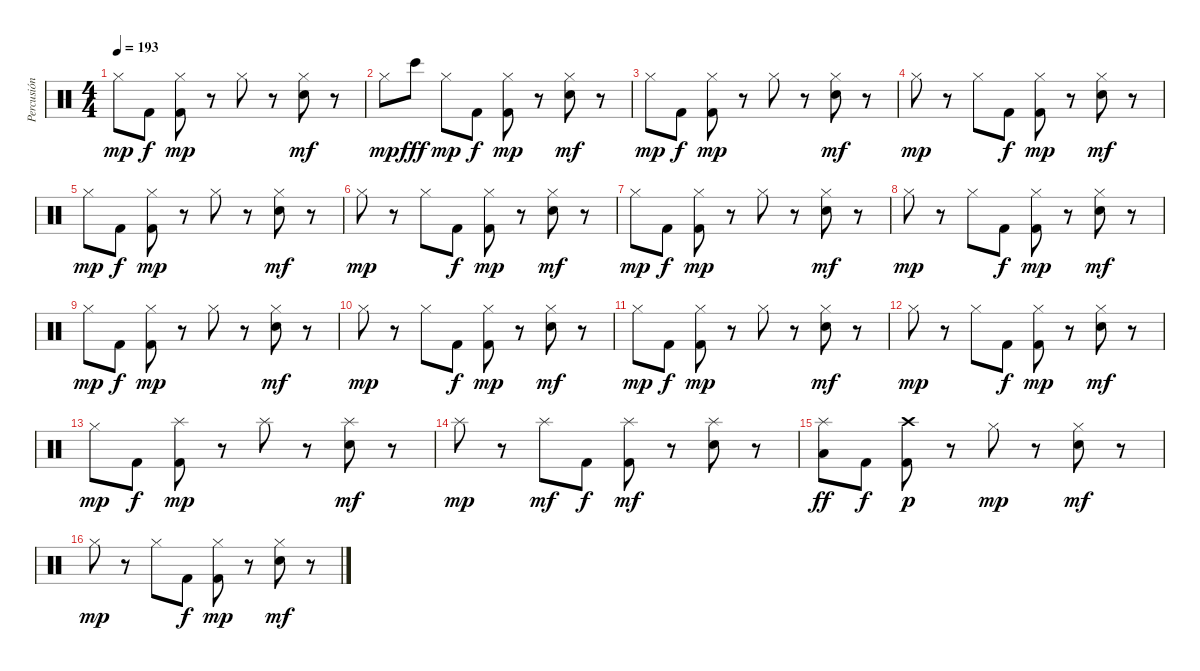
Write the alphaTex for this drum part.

\track ("Percusión" "Percusión") {instrument percussion}
\staff {score}
\articulation defaults
\ts (4 4)
\tempo 193
\clef neutral
\ks c "Hi-Hat (closed)".8{dy mp} "Kick (hit) 2".8{dy f}
("Hi-Hat (closed)" "Kick (hit) 2").8{dy mp} r.8 "Hi-Hat (closed)".8 r.8 ("Hi-Hat (closed)" "Electric Snare (hit)").8{dy mf} r.8 |
"Hi-Hat (closed)".8{dy mp} "Bongo High (hit)".8{dy fff} "Hi-Hat (closed)".8{dy mp} "Kick (hit) 2".8{dy f} ("Hi-Hat (closed)" "Kick (hit) 2").8{dy mp} r.8 ("Hi-Hat (closed)" "Electric Snare (hit)").8{dy mf} r.8 |
"Hi-Hat (closed)".8{dy mp} "Kick (hit) 2".8{dy f} ("Hi-Hat (closed)" "Kick (hit) 2").8{dy mp} r.8 "Hi-Hat (closed)".8 r.8 ("Hi-Hat (closed)" "Electric Snare (hit)").8{dy mf} r.8 |
"Hi-Hat (closed)".8{dy mp} r.8 "Hi-Hat (closed)".8 "Kick (hit) 2".8{dy f} ("Hi-Hat (closed)" "Kick (hit) 2").8{dy mp} r.8 ("Hi-Hat (closed)" "Electric Snare (hit)").8{dy mf} r.8 |
"Hi-Hat (closed)".8{dy mp} "Kick (hit) 2".8{dy f} ("Hi-Hat (closed)" "Kick (hit) 2").8{dy mp} r.8 "Hi-Hat (closed)".8 r.8 ("Hi-Hat (closed)" "Electric Snare (hit)").8{dy mf} r.8 |
"Hi-Hat (closed)".8{dy mp} r.8 "Hi-Hat (closed)".8 "Kick (hit) 2".8{dy f} ("Hi-Hat (closed)" "Kick (hit) 2").8{dy mp} r.8 ("Hi-Hat (closed)" "Electric Snare (hit)").8{dy mf} r.8 |
"Hi-Hat (closed)".8{dy mp} "Kick (hit) 2".8{dy f} ("Hi-Hat (closed)" "Kick (hit) 2").8{dy mp} r.8 "Hi-Hat (closed)".8 r.8 ("Hi-Hat (closed)" "Electric Snare (hit)").8{dy mf} r.8 |
"Hi-Hat (closed)".8{dy mp} r.8 "Hi-Hat (closed)".8 "Kick (hit) 2".8{dy f} ("Hi-Hat (closed)" "Kick (hit) 2").8{dy mp} r.8 ("Hi-Hat (closed)" "Electric Snare (hit)").8{dy mf} r.8 |
"Hi-Hat (closed)".8{dy mp} "Kick (hit) 2".8{dy f} ("Hi-Hat (closed)" "Kick (hit) 2").8{dy mp} r.8 "Hi-Hat (closed)".8 r.8 ("Hi-Hat (closed)" "Electric Snare (hit)").8{dy mf} r.8 |
"Hi-Hat (closed)".8{dy mp} r.8 "Hi-Hat (closed)".8 "Kick (hit) 2".8{dy f} ("Hi-Hat (closed)" "Kick (hit) 2").8{dy mp} r.8 ("Hi-Hat (closed)" "Electric Snare (hit)").8{dy mf} r.8 |
"Hi-Hat (closed)".8{dy mp} "Kick (hit) 2".8{dy f} ("Hi-Hat (closed)" "Kick (hit) 2").8{dy mp} r.8 "Hi-Hat (closed)".8 r.8 ("Hi-Hat (closed)" "Electric Snare (hit)").8{dy mf} r.8 |
"Hi-Hat (closed)".8{dy mp} r.8 "Hi-Hat (closed)".8 "Kick (hit) 2".8{dy f} ("Hi-Hat (closed)" "Kick (hit) 2").8{dy mp} r.8 ("Hi-Hat (closed)" "Electric Snare (hit)").8{dy mf} r.8 |
"Hi-Hat (closed)".8{dy mp} "Kick (hit) 2".8{dy f} ("Splash (hit)" "Kick (hit) 2").8{dy mp} r.8 "Splash (hit)".8 r.8 ("Splash (hit)" "Electric Snare (hit)").8{dy mf} r.8 |
"Splash (hit)".8{dy mp} r.8 "Splash (hit)".8{dy mf} "Kick (hit) 2".8{dy f} ("Splash (hit)" "Kick (hit) 2").8{dy mf} r.8 ("Splash (hit)" "Electric Snare (hit)").8 r.8 |
("Splash (hit)" "Low Floor Tom (hit)").8{dy ff} "Kick (hit) 2".8{dy f} ("Crash high (hit)" "Kick (hit) 2").8{dy p} r.8 "Hi-Hat (closed)".8{dy mp} r.8 ("Hi-Hat (closed)" "Electric Snare (hit)").8{dy mf} r.8 |
"Hi-Hat (closed)".8{dy mp} r.8 "Hi-Hat (closed)".8 "Kick (hit) 2".8{dy f} ("Hi-Hat (closed)" "Kick (hit) 2").8{dy mp} r.8 ("Hi-Hat (closed)" "Electric Snare (hit)").8{dy mf} r.8
